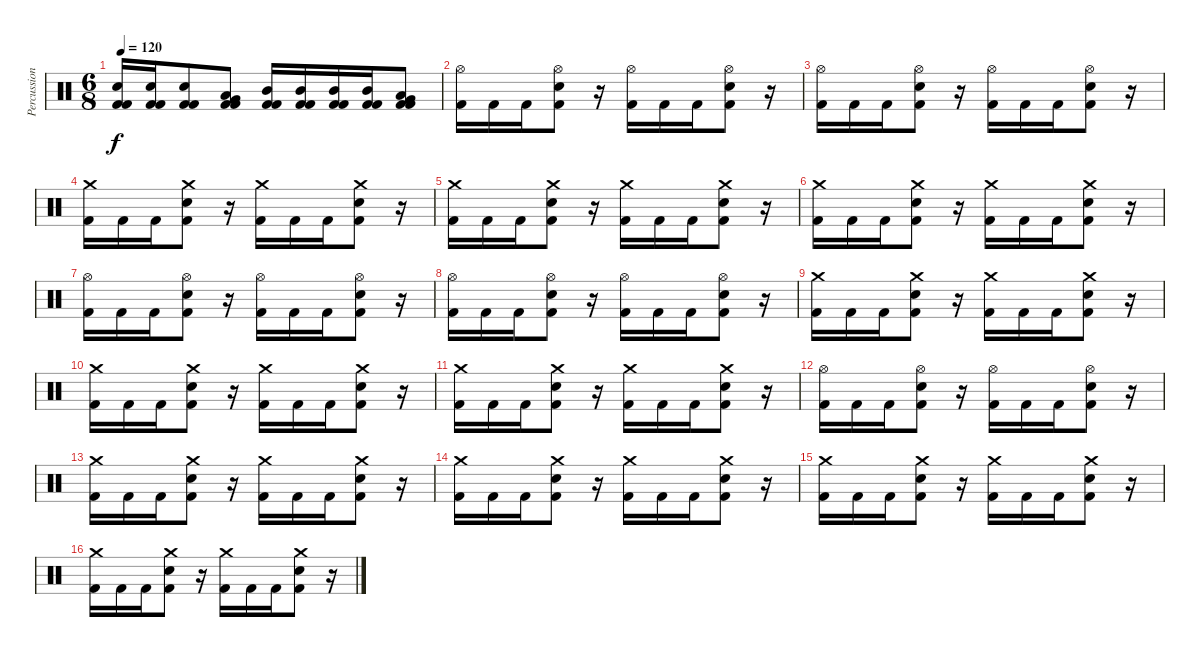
\track ("Percussion" "Percussion") {instrument percussion}
\staff {score}
\articulation defaults
\ts (6 8)
\tempo 120
\clef neutral
\ks c
("Electric Snare (hit)" "Kick (hit) 2" "Kick (hit) 2").16{dy f} ("Electric Snare (hit)" "Kick (hit) 2" "Kick (hit) 2").16 ("Electric Snare (hit)" "Kick (hit) 2" "Kick (hit) 2").8 ("Very Low Tom (hit)" "Kick (hit) 2" "Kick (hit) 2" "Low Tom (hit)").8 ("Mid Tom (hit)" "Kick (hit) 2" "Kick (hit) 2").16 ("Mid Tom (hit)" "Kick (hit) 2" "Kick (hit) 2").16 ("Mid Tom (hit)" "Kick (hit) 2" "Kick (hit) 2").16 ("Mid Tom (hit)" "Kick (hit) 2" "Kick (hit) 2").16 ("Very Low Tom (hit)" "Kick (hit) 2" "Kick (hit) 2" "Low Tom (hit)").8 |
("Hi-Hat (open)" "Kick (hit) 2").16 "Kick (hit) 2".16 "Kick (hit) 2".16 ("Hi-Hat (open)" "Snare (hit) 2" "Kick (hit) 2").8 r.16 ("Hi-Hat (open)" "Kick (hit) 2").16 "Kick (hit) 2".16 "Kick (hit) 2".16 ("Hi-Hat (open)" "Snare (hit) 2" "Kick (hit) 2").8 r.16 |
("Hi-Hat (open)" "Kick (hit) 2").16 "Kick (hit) 2".16 "Kick (hit) 2".16 ("Hi-Hat (open)" "Snare (hit) 2" "Kick (hit) 2").8 r.16 ("Hi-Hat (open)" "Kick (hit) 2").16 "Kick (hit) 2".16 "Kick (hit) 2".16 ("Hi-Hat (open)" "Snare (hit) 2" "Kick (hit) 2").8 r.16 |
("Crash medium (hit)" "Kick (hit) 2").16 "Kick (hit) 2".16 "Kick (hit) 2".16 ("Crash medium (hit)" "Snare (hit) 2" "Kick (hit) 2").8 r.16 ("Crash medium (hit)" "Kick (hit) 2").16 "Kick (hit) 2".16 "Kick (hit) 2".16 ("Crash medium (hit)" "Snare (hit) 2" "Kick (hit) 2").8 r.16 |
("Crash medium (hit)" "Kick (hit) 2").16 "Kick (hit) 2".16 "Kick (hit) 2".16 ("Crash medium (hit)" "Snare (hit) 2" "Kick (hit) 2").8 r.16 ("Crash medium (hit)" "Kick (hit) 2").16 "Kick (hit) 2".16 "Kick (hit) 2".16 ("Crash medium (hit)" "Snare (hit) 2" "Kick (hit) 2").8 r.16 |
("Crash medium (hit)" "Kick (hit) 2").16 "Kick (hit) 2".16 "Kick (hit) 2".16 ("Crash medium (hit)" "Snare (hit) 2" "Kick (hit) 2").8 r.16 ("Crash medium (hit)" "Kick (hit) 2").16 "Kick (hit) 2".16 "Kick (hit) 2".16 ("Crash medium (hit)" "Snare (hit) 2" "Kick (hit) 2").8 r.16 |
("Hi-Hat (open)" "Kick (hit) 2").16 "Kick (hit) 2".16 "Kick (hit) 2".16 ("Hi-Hat (open)" "Snare (hit) 2" "Kick (hit) 2").8 r.16 ("Hi-Hat (open)" "Kick (hit) 2").16 "Kick (hit) 2".16 "Kick (hit) 2".16 ("Hi-Hat (open)" "Snare (hit) 2" "Kick (hit) 2").8 r.16 |
("Hi-Hat (open)" "Kick (hit) 2").16 "Kick (hit) 2".16 "Kick (hit) 2".16 ("Hi-Hat (open)" "Snare (hit) 2" "Kick (hit) 2").8 r.16 ("Hi-Hat (open)" "Kick (hit) 2").16 "Kick (hit) 2".16 "Kick (hit) 2".16 ("Hi-Hat (open)" "Snare (hit) 2" "Kick (hit) 2").8 r.16 |
("Crash medium (hit)" "Kick (hit) 2").16 "Kick (hit) 2".16 "Kick (hit) 2".16 ("Crash medium (hit)" "Snare (hit) 2" "Kick (hit) 2").8 r.16 ("Crash medium (hit)" "Kick (hit) 2").16 "Kick (hit) 2".16 "Kick (hit) 2".16 ("Crash medium (hit)" "Snare (hit) 2" "Kick (hit) 2").8 r.16 |
("Crash medium (hit)" "Kick (hit) 2").16 "Kick (hit) 2".16 "Kick (hit) 2".16 ("Crash medium (hit)" "Snare (hit) 2" "Kick (hit) 2").8 r.16 ("Crash medium (hit)" "Kick (hit) 2").16 "Kick (hit) 2".16 "Kick (hit) 2".16 ("Crash medium (hit)" "Snare (hit) 2" "Kick (hit) 2").8 r.16 |
("Crash medium (hit)" "Kick (hit) 2").16 "Kick (hit) 2".16 "Kick (hit) 2".16 ("Crash medium (hit)" "Snare (hit) 2" "Kick (hit) 2").8 r.16 ("Crash medium (hit)" "Kick (hit) 2").16 "Kick (hit) 2".16 "Kick (hit) 2".16 ("Crash medium (hit)" "Snare (hit) 2" "Kick (hit) 2").8 r.16 |
("Hi-Hat (open)" "Kick (hit) 2").16 "Kick (hit) 2".16 "Kick (hit) 2".16 ("Hi-Hat (open)" "Snare (hit) 2" "Kick (hit) 2").8 r.16 ("Hi-Hat (open)" "Kick (hit) 2").16 "Kick (hit) 2".16 "Kick (hit) 2".16 ("Hi-Hat (open)" "Snare (hit) 2" "Kick (hit) 2").8 r.16 |
("Crash medium (hit)" "Kick (hit) 2").16 "Kick (hit) 2".16 "Kick (hit) 2".16 ("Crash medium (hit)" "Snare (hit) 2" "Kick (hit) 2").8 r.16 ("Crash medium (hit)" "Kick (hit) 2").16 "Kick (hit) 2".16 "Kick (hit) 2".16 ("Crash medium (hit)" "Snare (hit) 2" "Kick (hit) 2").8 r.16 |
("Crash medium (hit)" "Kick (hit) 2").16 "Kick (hit) 2".16 "Kick (hit) 2".16 ("Crash medium (hit)" "Snare (hit) 2" "Kick (hit) 2").8 r.16 ("Crash medium (hit)" "Kick (hit) 2").16 "Kick (hit) 2".16 "Kick (hit) 2".16 ("Crash medium (hit)" "Snare (hit) 2" "Kick (hit) 2").8 r.16 |
("Crash medium (hit)" "Kick (hit) 2").16 "Kick (hit) 2".16 "Kick (hit) 2".16 ("Crash medium (hit)" "Snare (hit) 2" "Kick (hit) 2").8 r.16 ("Crash medium (hit)" "Kick (hit) 2").16 "Kick (hit) 2".16 "Kick (hit) 2".16 ("Crash medium (hit)" "Snare (hit) 2" "Kick (hit) 2").8 r.16 |
("Crash medium (hit)" "Kick (hit) 2").16 "Kick (hit) 2".16 "Kick (hit) 2".16 ("Crash medium (hit)" "Snare (hit) 2" "Kick (hit) 2").8 r.16 ("Crash medium (hit)" "Kick (hit) 2").16 "Kick (hit) 2".16 "Kick (hit) 2".16 ("Crash medium (hit)" "Snare (hit) 2" "Kick (hit) 2").8 r.16
